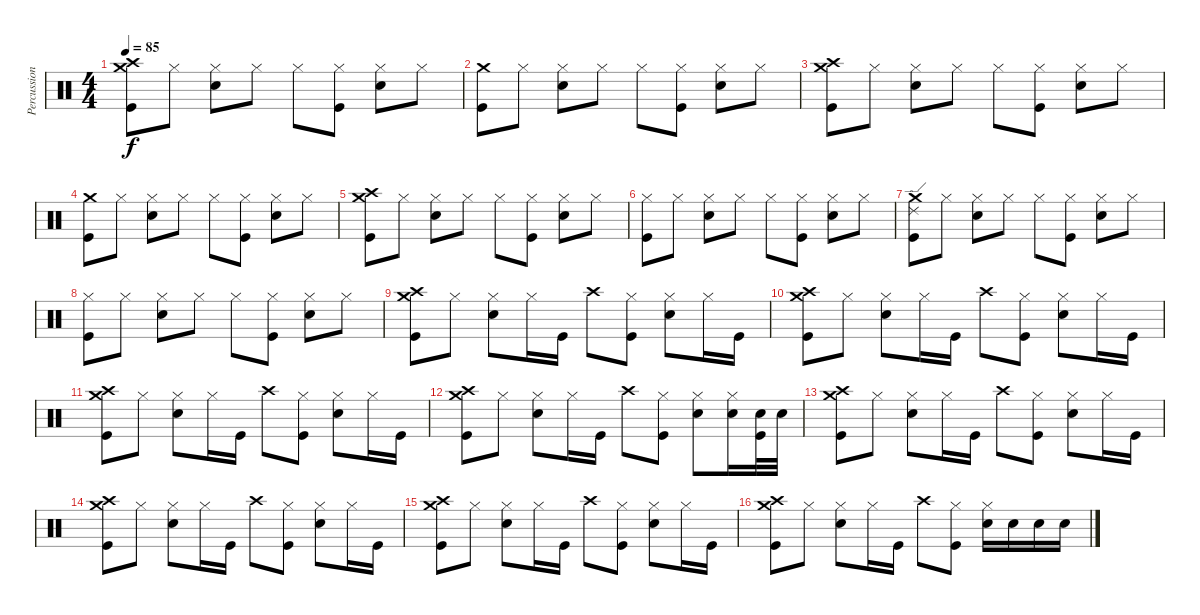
\track ("Percussion" "Percussion") {instrument percussion}
\staff {score}
\articulation defaults
\ts (4 4)
\tempo 85
\clef neutral
\ks c
("Crash high (hit)" "Crash medium (hit)" "Kick (hit)").8{dy f} "Hi-Hat (closed)".8 ("Hi-Hat (closed)" "Snare (hit) 2").8 "Hi-Hat (closed)".8 "Hi-Hat (closed)".8 ("Hi-Hat (closed)" "Kick (hit)").8 ("Hi-Hat (closed)" "Snare (hit) 2").8 "Hi-Hat (closed)".8 |
("Crash medium (hit)" "Kick (hit)").8 "Hi-Hat (closed)".8 ("Hi-Hat (closed)" "Snare (hit) 2").8 "Hi-Hat (closed)".8 "Hi-Hat (closed)".8 ("Hi-Hat (closed)" "Kick (hit)").8 ("Hi-Hat (closed)" "Snare (hit) 2").8 "Hi-Hat (closed)".8 |
("Crash high (hit)" "Crash medium (hit)" "Kick (hit)").8 "Hi-Hat (closed)".8 ("Hi-Hat (closed)" "Snare (hit) 2").8 "Hi-Hat (closed)".8 "Hi-Hat (closed)".8 ("Hi-Hat (closed)" "Kick (hit)").8 ("Hi-Hat (closed)" "Snare (hit) 2").8 "Hi-Hat (closed)".8 |
("Crash medium (hit)" "Kick (hit)").8 "Hi-Hat (closed)".8 ("Hi-Hat (closed)" "Snare (hit) 2").8 "Hi-Hat (closed)".8 "Hi-Hat (closed)".8 ("Hi-Hat (closed)" "Kick (hit)").8 ("Hi-Hat (closed)" "Snare (hit) 2").8 "Hi-Hat (closed)".8 |
("Crash high (hit)" "Crash medium (hit)" "Kick (hit)").8 "Hi-Hat (closed)".8 ("Hi-Hat (closed)" "Snare (hit) 2").8 "Hi-Hat (closed)".8 "Hi-Hat (closed)".8 ("Hi-Hat (closed)" "Kick (hit)").8 ("Hi-Hat (closed)" "Snare (hit) 2").8 "Hi-Hat (closed)".8 |
("Hi-Hat (closed)" "Kick (hit)").8 "Hi-Hat (closed)".8 ("Hi-Hat (closed)" "Snare (hit) 2").8 "Hi-Hat (closed)".8 "Hi-Hat (closed)".8 ("Hi-Hat (closed)" "Kick (hit)").8 ("Hi-Hat (closed)" "Snare (hit) 2").8 "Hi-Hat (closed)".8 |
("Ride (edge) 2" "Crash medium (hit)" "Kick (hit)").8 "Hi-Hat (closed)".8 ("Hi-Hat (closed)" "Snare (hit) 2").8 "Hi-Hat (closed)".8 "Hi-Hat (closed)".8 ("Hi-Hat (closed)" "Kick (hit)").8 ("Hi-Hat (closed)" "Snare (hit) 2").8 "Hi-Hat (closed)".8 |
("Hi-Hat (closed)" "Kick (hit)").8 "Hi-Hat (closed)".8 ("Hi-Hat (closed)" "Snare (hit) 2").8 "Hi-Hat (closed)".8 "Hi-Hat (closed)".8 ("Hi-Hat (closed)" "Kick (hit)").8 ("Hi-Hat (closed)" "Snare (hit) 2").8 "Hi-Hat (closed)".8 |
("Crash high (hit)" "Crash medium (hit)" "Kick (hit)").8{volume 14} "Hi-Hat (closed)".8 ("Hi-Hat (closed)" "Snare (hit) 2").8 "Hi-Hat (closed)".16 "Kick (hit)".16 "Crash high (hit)".8 ("Hi-Hat (closed)" "Kick (hit)").8 ("Hi-Hat (closed)" "Snare (hit) 2").8 "Hi-Hat (closed)".16 "Kick (hit)".16 |
("Crash high (hit)" "Crash medium (hit)" "Kick (hit)").8{volume 14} "Hi-Hat (closed)".8 ("Hi-Hat (closed)" "Snare (hit) 2").8 "Hi-Hat (closed)".16 "Kick (hit)".16 "Crash high (hit)".8 ("Hi-Hat (closed)" "Kick (hit)").8 ("Hi-Hat (closed)" "Snare (hit) 2").8 "Hi-Hat (closed)".16 "Kick (hit)".16 |
("Crash high (hit)" "Crash medium (hit)" "Kick (hit)").8{volume 14} "Hi-Hat (closed)".8 ("Hi-Hat (closed)" "Snare (hit) 2").8 "Hi-Hat (closed)".16 "Kick (hit)".16 "Crash high (hit)".8 ("Hi-Hat (closed)" "Kick (hit)").8 ("Hi-Hat (closed)" "Snare (hit) 2").8 "Hi-Hat (closed)".16 "Kick (hit)".16 |
("Crash high (hit)" "Crash medium (hit)" "Kick (hit)").8{volume 14} "Hi-Hat (closed)".8 ("Hi-Hat (closed)" "Snare (hit) 2").8 "Hi-Hat (closed)".16 "Kick (hit)".16 "Crash high (hit)".8 ("Hi-Hat (closed)" "Kick (hit)").8 ("Hi-Hat (closed)" "Snare (hit) 2").8 ("Hi-Hat (closed)" "Snare (hit) 2").16 ("Kick (hit)" "Snare (hit) 2").32 "Snare (hit) 2".32 |
("Crash high (hit)" "Crash medium (hit)" "Kick (hit)").8{volume 14} "Hi-Hat (closed)".8 ("Hi-Hat (closed)" "Snare (hit) 2").8 "Hi-Hat (closed)".16 "Kick (hit)".16 "Crash high (hit)".8 ("Hi-Hat (closed)" "Kick (hit)").8 ("Hi-Hat (closed)" "Snare (hit) 2").8 "Hi-Hat (closed)".16 "Kick (hit)".16 |
("Crash high (hit)" "Crash medium (hit)" "Kick (hit)").8{volume 14} "Hi-Hat (closed)".8 ("Hi-Hat (closed)" "Snare (hit) 2").8 "Hi-Hat (closed)".16 "Kick (hit)".16 "Crash high (hit)".8 ("Hi-Hat (closed)" "Kick (hit)").8 ("Hi-Hat (closed)" "Snare (hit) 2").8 "Hi-Hat (closed)".16 "Kick (hit)".16 |
("Crash high (hit)" "Crash medium (hit)" "Kick (hit)").8{volume 14} "Hi-Hat (closed)".8 ("Hi-Hat (closed)" "Snare (hit) 2").8 "Hi-Hat (closed)".16 "Kick (hit)".16 "Crash high (hit)".8 ("Hi-Hat (closed)" "Kick (hit)").8 ("Hi-Hat (closed)" "Snare (hit) 2").8 "Hi-Hat (closed)".16 "Kick (hit)".16 |
("Crash high (hit)" "Crash medium (hit)" "Kick (hit)").8{volume 14} "Hi-Hat (closed)".8 ("Hi-Hat (closed)" "Snare (hit) 2").8 "Hi-Hat (closed)".16 "Kick (hit)".16 "Crash high (hit)".8 ("Hi-Hat (closed)" "Kick (hit)").8 ("Hi-Hat (closed)" "Snare (hit) 2").16 "Snare (hit) 2".16 "Snare (hit) 2".16 "Snare (hit) 2".16
